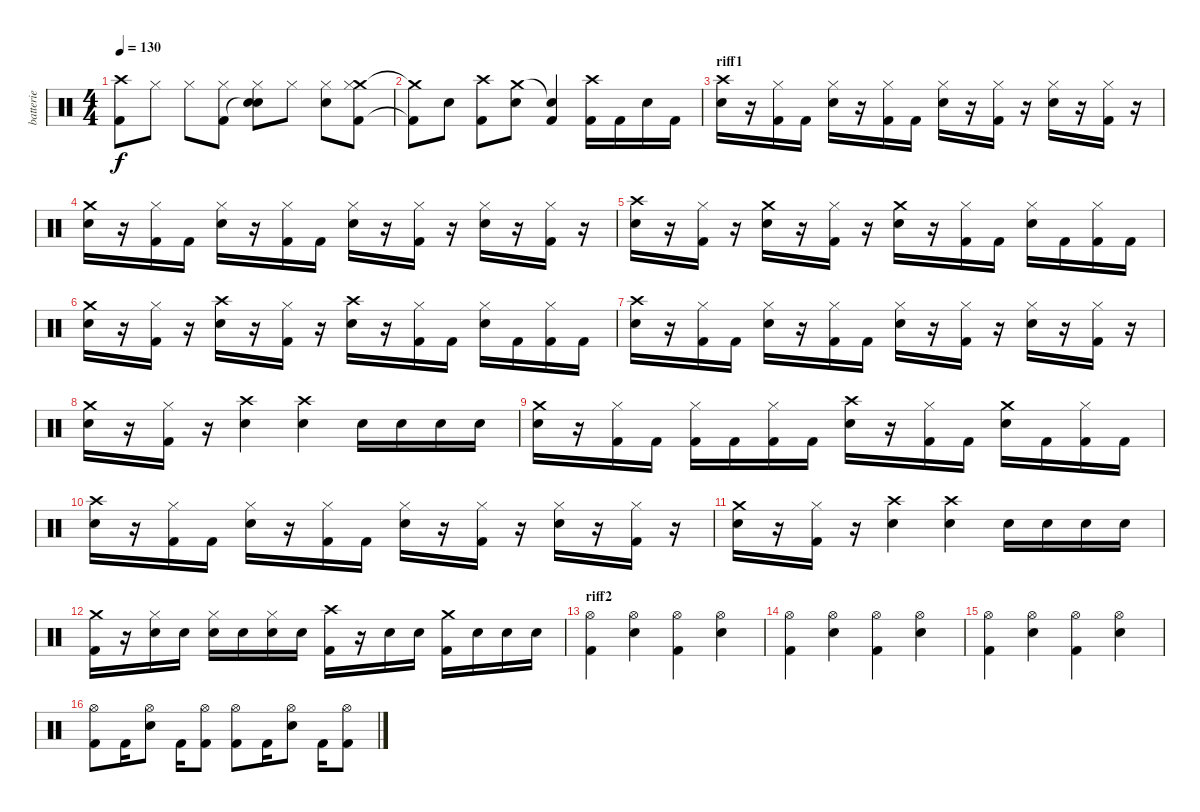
\track ("batterie" "batterie") {instrument percussion}
\staff {score}
\articulation defaults
\ts (4 4)
\tempo 130
\clef neutral
\ks c
("Crash high (hit)" "Kick (hit) 2").8{dy f} "Hi-Hat (closed)".8 "Hi-Hat (closed)".8 ("Kick (hit) 2" "Hi-Hat (closed)").8 ("Snare (hit)"{t} "Snare (hit) 2" "Hi-Hat (closed)").8 "Hi-Hat (closed)".8 ("Snare (hit) 2" "Hi-Hat (closed)").8 ("Crash medium (hit)" "Kick (hit) 2" "Hi-Hat (closed)").8 |
("Crash medium (hit)"{t} "Kick (hit) 2"{t}).8 "Snare (hit) 2".8 ("Crash high (hit)" "Kick (hit) 2").8 ("Crash medium (hit)" "Snare (hit) 2").8 ("Snare (hit)"{t} "Kick (hit) 2").4 ("Crash high (hit)" "Kick (hit) 2").16 "Kick (hit) 2".16 "Snare (hit) 2".16 "Kick (hit) 2".16 |
\section ("" "riff1")
("Crash high (hit)" "Snare (hit) 2").16 r.16 ("Kick (hit) 2" "Hi-Hat (closed)").16 "Kick (hit) 2".16 ("Snare (hit) 2" "Hi-Hat (closed)").16 r.16 ("Kick (hit) 2" "Hi-Hat (closed)").16 "Kick (hit) 2".16 ("Snare (hit) 2" "Hi-Hat (closed)").16 r.16 ("Kick (hit) 2" "Hi-Hat (closed)").16 r.16 ("Snare (hit) 2" "Hi-Hat (closed)").16 r.16 ("Kick (hit) 2" "Hi-Hat (closed)").16 r.16 |
("Crash medium (hit)" "Snare (hit) 2").16 r.16 ("Kick (hit) 2" "Hi-Hat (closed)").16 "Kick (hit) 2".16 ("Snare (hit) 2" "Hi-Hat (closed)").16 r.16 ("Kick (hit) 2" "Hi-Hat (closed)").16 "Kick (hit) 2".16 ("Snare (hit) 2" "Hi-Hat (closed)").16 r.16 ("Kick (hit) 2" "Hi-Hat (closed)").16 r.16 ("Snare (hit) 2" "Hi-Hat (closed)").16 r.16 ("Kick (hit) 2" "Hi-Hat (closed)").16 r.16 |
("Crash high (hit)" "Snare (hit) 2").16 r.16 ("Kick (hit) 2" "Hi-Hat (closed)").16 r.16 ("Crash medium (hit)" "Snare (hit) 2").16 r.16 ("Kick (hit) 2" "Hi-Hat (closed)").16 r.16 ("Crash medium (hit)" "Snare (hit) 2").16 r.16 ("Kick (hit) 2" "Hi-Hat (closed)").16 "Kick (hit) 2".16 ("Snare (hit) 2" "Hi-Hat (closed)").16 "Kick (hit) 2".16 ("Kick (hit) 2" "Hi-Hat (closed)").16 "Kick (hit) 2".16 |
("Crash medium (hit)" "Snare (hit) 2").16 r.16 ("Kick (hit) 2" "Hi-Hat (closed)").16 r.16 ("Crash high (hit)" "Snare (hit) 2").16 r.16 ("Kick (hit) 2" "Hi-Hat (closed)").16 r.16 ("Crash high (hit)" "Snare (hit) 2").16 r.16 ("Kick (hit) 2" "Hi-Hat (closed)").16 "Kick (hit) 2".16 ("Snare (hit) 2" "Hi-Hat (closed)").16 "Kick (hit) 2".16 ("Kick (hit) 2" "Hi-Hat (closed)").16 "Kick (hit) 2".16 |
("Crash high (hit)" "Snare (hit) 2").16 r.16 ("Kick (hit) 2" "Hi-Hat (closed)").16 "Kick (hit) 2".16 ("Snare (hit) 2" "Hi-Hat (closed)").16 r.16 ("Kick (hit) 2" "Hi-Hat (closed)").16 "Kick (hit) 2".16 ("Snare (hit) 2" "Hi-Hat (closed)").16 r.16 ("Kick (hit) 2" "Hi-Hat (closed)").16 r.16 ("Snare (hit) 2" "Hi-Hat (closed)").16 r.16 ("Kick (hit) 2" "Hi-Hat (closed)").16 r.16 |
("Crash medium (hit)" "Snare (hit) 2").16 r.16 ("Kick (hit) 2" "Hi-Hat (closed)").16 r.16 ("Crash high (hit)" "Snare (hit) 2").4 ("Crash high (hit)" "Snare (hit) 2").4 "Snare (hit) 2".16 "Snare (hit) 2".16 "Snare (hit) 2".16 "Snare (hit) 2".16 |
("Crash medium (hit)" "Snare (hit) 2").16 r.16 ("Kick (hit) 2" "Hi-Hat (closed)").16 "Kick (hit) 2".16 ("Kick (hit) 2" "Hi-Hat (closed)").16 "Kick (hit) 2".16 ("Kick (hit) 2" "Hi-Hat (closed)").16 "Kick (hit) 2".16 ("Crash high (hit)" "Snare (hit) 2").16 r.16 ("Kick (hit) 2" "Hi-Hat (closed)").16 "Kick (hit) 2".16 ("Crash medium (hit)" "Snare (hit) 2").16 "Kick (hit) 2".16 ("Kick (hit) 2" "Hi-Hat (closed)").16 "Kick (hit) 2".16 |
("Crash high (hit)" "Snare (hit) 2").16 r.16 ("Kick (hit) 2" "Hi-Hat (closed)").16 "Kick (hit) 2".16 ("Snare (hit) 2" "Hi-Hat (closed)").16 r.16 ("Kick (hit) 2" "Hi-Hat (closed)").16 "Kick (hit) 2".16 ("Snare (hit) 2" "Hi-Hat (closed)").16 r.16 ("Kick (hit) 2" "Hi-Hat (closed)").16 r.16 ("Snare (hit) 2" "Hi-Hat (closed)").16 r.16 ("Kick (hit) 2" "Hi-Hat (closed)").16 r.16 |
("Crash medium (hit)" "Snare (hit) 2").16 r.16 ("Kick (hit) 2" "Hi-Hat (closed)").16 r.16 ("Crash high (hit)" "Snare (hit) 2").4 ("Crash high (hit)" "Snare (hit) 2").4 "Snare (hit) 2".16 "Snare (hit) 2".16 "Snare (hit) 2".16 "Snare (hit) 2".16 |
("Crash medium (hit)" "Kick (hit) 2").16 r.16 ("Snare (hit) 2" "Hi-Hat (closed)").16 "Snare (hit) 2".16 ("Snare (hit) 2" "Hi-Hat (closed)").16 "Snare (hit) 2".16 ("Snare (hit) 2" "Hi-Hat (closed)").16 "Snare (hit) 2".16 ("Crash high (hit)" "Kick (hit) 2").16 r.16 "Snare (hit) 2".16 "Snare (hit) 2".16 ("Crash medium (hit)" "Kick (hit) 2").16 "Snare (hit) 2".16 "Snare (hit) 2".16 "Snare (hit) 2".16 |
\section ("" "riff2")
("Kick (hit) 2" "Hi-Hat (open)").4 ("Snare (hit) 2" "Hi-Hat (open)").4 ("Kick (hit) 2" "Hi-Hat (open)").4 ("Snare (hit) 2" "Hi-Hat (open)").4 |
("Kick (hit) 2" "Hi-Hat (open)").4 ("Snare (hit) 2" "Hi-Hat (open)").4 ("Kick (hit) 2" "Hi-Hat (open)").4 ("Snare (hit) 2" "Hi-Hat (open)").4 |
("Kick (hit) 2" "Hi-Hat (open)").4 ("Snare (hit) 2" "Hi-Hat (open)").4 ("Kick (hit) 2" "Hi-Hat (open)").4 ("Snare (hit) 2" "Hi-Hat (open)").4 |
("Kick (hit) 2" "Hi-Hat (open)").8 "Kick (hit) 2".16 ("Snare (hit) 2" "Hi-Hat (open)").8 "Kick (hit) 2".16 ("Kick (hit) 2" "Hi-Hat (open)").8 ("Kick (hit) 2" "Hi-Hat (open)").8 "Kick (hit) 2".16 ("Snare (hit) 2" "Hi-Hat (open)").8 "Kick (hit) 2".16 ("Kick (hit) 2" "Hi-Hat (open)").8
